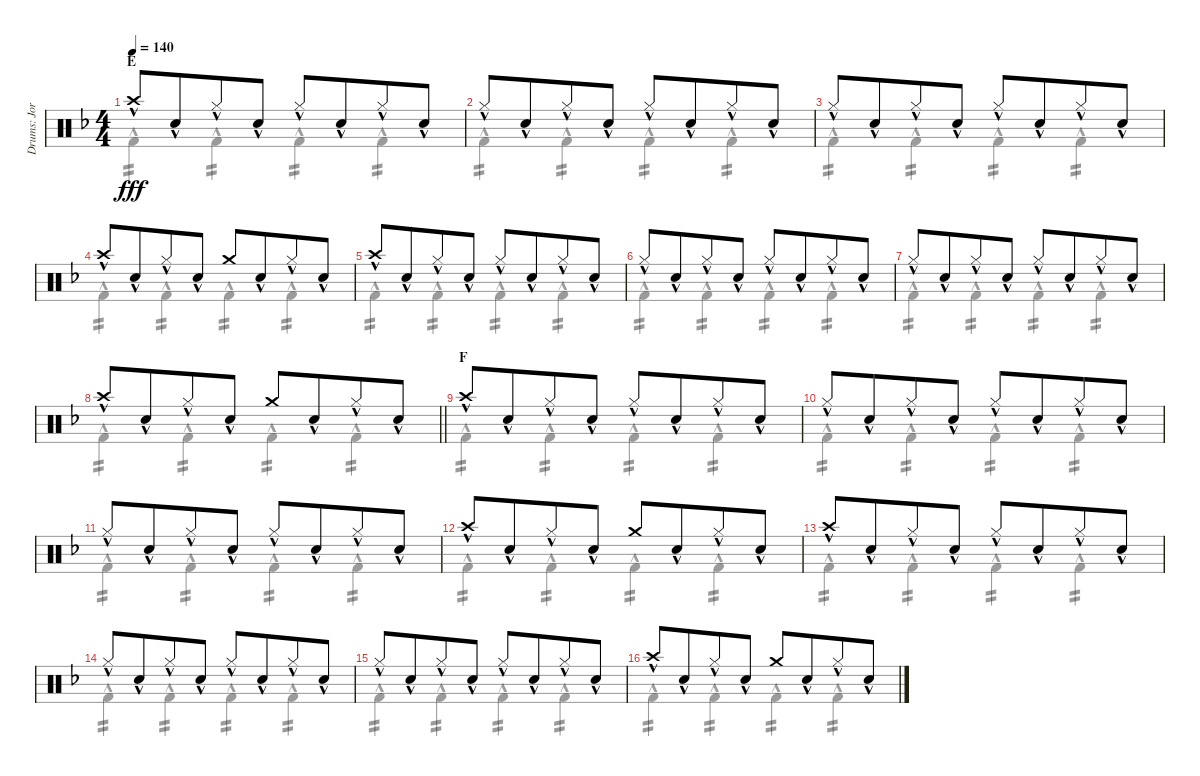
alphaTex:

\track ("Drums: Jorg" "Drums: Jor") {instrument percussion}
\staff {score}
\articulation defaults
\voice
\ts (4 4)
\section ("" "E")
\tempo 140
\clef neutral
\ks f "Crash high (hit)"{hac}.8{dy fff} "Snare (hit) 2"{hac}.8{beam merge} "Hi-Hat (closed)"{hac}.8 "Snare (hit) 2"{hac}.8 "Hi-Hat (closed)"{hac}.8 "Snare (hit) 2"{hac}.8{beam merge} "Hi-Hat (closed)"{hac}.8 "Snare (hit) 2"{hac}.8
|
"Hi-Hat (closed)"{hac}.8 "Snare (hit) 2"{hac}.8{beam merge} "Hi-Hat (closed)"{hac}.8 "Snare (hit) 2"{hac}.8 "Hi-Hat (closed)"{hac}.8 "Snare (hit) 2"{hac}.8{beam merge} "Hi-Hat (closed)"{hac}.8 "Snare (hit) 2"{hac}.8 |
"Hi-Hat (closed)"{hac}.8 "Snare (hit) 2"{hac}.8{beam merge} "Hi-Hat (closed)"{hac}.8 "Snare (hit) 2"{hac}.8 "Hi-Hat (closed)"{hac}.8 "Snare (hit) 2"{hac}.8{beam merge} "Hi-Hat (closed)"{hac}.8 "Snare (hit) 2"{hac}.8 |
"Crash high (hit)"{hac}.8 "Snare (hit) 2"{hac}.8{beam merge} "Hi-Hat (closed)"{hac}.8 "Snare (hit) 2"{hac}.8 "Crash medium (hit)".8 "Snare (hit) 2"{hac}.8{beam merge} "Hi-Hat (closed)"{hac}.8 "Snare (hit) 2"{hac}.8 |
"Crash high (hit)"{hac}.8 "Snare (hit) 2"{hac}.8{beam merge} "Hi-Hat (closed)"{hac}.8 "Snare (hit) 2"{hac}.8 "Hi-Hat (closed)"{hac}.8 "Snare (hit) 2"{hac}.8{beam merge} "Hi-Hat (closed)"{hac}.8 "Snare (hit) 2"{hac}.8 |
"Hi-Hat (closed)"{hac}.8 "Snare (hit) 2"{hac}.8{beam merge} "Hi-Hat (closed)"{hac}.8 "Snare (hit) 2"{hac}.8 "Hi-Hat (closed)"{hac}.8 "Snare (hit) 2"{hac}.8{beam merge} "Hi-Hat (closed)"{hac}.8 "Snare (hit) 2"{hac}.8 |
"Hi-Hat (closed)"{hac}.8 "Snare (hit) 2"{hac}.8{beam merge} "Hi-Hat (closed)"{hac}.8 "Snare (hit) 2"{hac}.8 "Hi-Hat (closed)"{hac}.8 "Snare (hit) 2"{hac}.8{beam merge} "Hi-Hat (closed)"{hac}.8 "Snare (hit) 2"{hac}.8 |
\barLineRight lightlight "Crash high (hit)"{hac}.8 "Snare (hit) 2"{hac}.8{beam merge} "Hi-Hat (closed)"{hac}.8 "Snare (hit) 2"{hac}.8 "Crash medium (hit)".8 "Snare (hit) 2"{hac}.8{beam merge} "Hi-Hat (closed)"{hac}.8 "Snare (hit) 2"{hac}.8
|
\section ("" "F")
"Crash high (hit)"{hac}.8 "Snare (hit) 2"{hac}.8{beam merge} "Hi-Hat (closed)"{hac}.8 "Snare (hit) 2"{hac}.8 "Hi-Hat (closed)"{hac}.8 "Snare (hit) 2"{hac}.8{beam merge} "Hi-Hat (closed)"{hac}.8 "Snare (hit) 2"{hac}.8 |
"Hi-Hat (closed)"{hac}.8 "Snare (hit) 2"{hac}.8{beam merge} "Hi-Hat (closed)"{hac}.8 "Snare (hit) 2"{hac}.8 "Hi-Hat (closed)"{hac}.8 "Snare (hit) 2"{hac}.8{beam merge} "Hi-Hat (closed)"{hac}.8 "Snare (hit) 2"{hac}.8 |
"Hi-Hat (closed)"{hac}.8 "Snare (hit) 2"{hac}.8{beam merge} "Hi-Hat (closed)"{hac}.8 "Snare (hit) 2"{hac}.8 "Hi-Hat (closed)"{hac}.8 "Snare (hit) 2"{hac}.8{beam merge} "Hi-Hat (closed)"{hac}.8 "Snare (hit) 2"{hac}.8 |
"Crash high (hit)"{hac}.8 "Snare (hit) 2"{hac}.8{beam merge} "Hi-Hat (closed)"{hac}.8 "Snare (hit) 2"{hac}.8 "Crash medium (hit)".8 "Snare (hit) 2"{hac}.8{beam merge} "Hi-Hat (closed)"{hac}.8 "Snare (hit) 2"{hac}.8 |
"Crash high (hit)"{hac}.8 "Snare (hit) 2"{hac}.8{beam merge} "Hi-Hat (closed)"{hac}.8 "Snare (hit) 2"{hac}.8 "Hi-Hat (closed)"{hac}.8 "Snare (hit) 2"{hac}.8{beam merge} "Hi-Hat (closed)"{hac}.8 "Snare (hit) 2"{hac}.8 |
"Hi-Hat (closed)"{hac}.8 "Snare (hit) 2"{hac}.8{beam merge} "Hi-Hat (closed)"{hac}.8 "Snare (hit) 2"{hac}.8 "Hi-Hat (closed)"{hac}.8 "Snare (hit) 2"{hac}.8{beam merge} "Hi-Hat (closed)"{hac}.8 "Snare (hit) 2"{hac}.8 |
"Hi-Hat (closed)"{hac}.8 "Snare (hit) 2"{hac}.8{beam merge} "Hi-Hat (closed)"{hac}.8 "Snare (hit) 2"{hac}.8 "Hi-Hat (closed)"{hac}.8 "Snare (hit) 2"{hac}.8{beam merge} "Hi-Hat (closed)"{hac}.8 "Snare (hit) 2"{hac}.8 |
"Crash high (hit)"{hac}.8 "Snare (hit) 2"{hac}.8{beam merge} "Hi-Hat (closed)"{hac}.8 "Snare (hit) 2"{hac}.8 "Crash medium (hit)".8 "Snare (hit) 2"{hac}.8{beam merge} "Hi-Hat (closed)"{hac}.8 "Snare (hit) 2"{hac}.8
\voice
\clef neutral
\ottava regular
\simile none
\ks f "Kick (hit) 2"{hac}.4{tp 2 dy fff beam merge} "Kick (hit) 2"{hac}.4{tp 2} "Kick (hit) 2"{hac}.4{tp 2} "Kick (hit) 2"{hac}.4{tp 2}
|
"Kick (hit) 2"{hac}.4{tp 2 beam merge} "Kick (hit) 2"{hac}.4{tp 2} "Kick (hit) 2"{hac}.4{tp 2} "Kick (hit) 2"{hac}.4{tp 2} |
"Kick (hit) 2"{hac}.4{tp 2 beam merge} "Kick (hit) 2"{hac}.4{tp 2} "Kick (hit) 2"{hac}.4{tp 2} "Kick (hit) 2"{hac}.4{tp 2} |
"Kick (hit) 2"{hac}.4{tp 2 beam merge} "Kick (hit) 2"{hac}.4{tp 2} "Kick (hit) 2"{hac}.4{tp 2} "Kick (hit) 2"{hac}.4{tp 2} |
"Kick (hit) 2"{hac}.4{tp 2 beam merge} "Kick (hit) 2"{hac}.4{tp 2} "Kick (hit) 2"{hac}.4{tp 2} "Kick (hit) 2"{hac}.4{tp 2} |
"Kick (hit) 2"{hac}.4{tp 2 beam merge} "Kick (hit) 2"{hac}.4{tp 2} "Kick (hit) 2"{hac}.4{tp 2} "Kick (hit) 2"{hac}.4{tp 2} |
"Kick (hit) 2"{hac}.4{tp 2 beam merge} "Kick (hit) 2"{hac}.4{tp 2} "Kick (hit) 2"{hac}.4{tp 2} "Kick (hit) 2"{hac}.4{tp 2} |
\barLineRight lightlight "Kick (hit) 2"{hac}.4{tp 2 beam merge} "Kick (hit) 2"{hac}.4{tp 2} "Kick (hit) 2"{hac}.4{tp 2} "Kick (hit) 2"{hac}.4{tp 2}
|
"Kick (hit) 2"{hac}.4{tp 2 beam merge} "Kick (hit) 2"{hac}.4{tp 2} "Kick (hit) 2"{hac}.4{tp 2} "Kick (hit) 2"{hac}.4{tp 2} |
"Kick (hit) 2"{hac}.4{tp 2 beam merge} "Kick (hit) 2"{hac}.4{tp 2} "Kick (hit) 2"{hac}.4{tp 2} "Kick (hit) 2"{hac}.4{tp 2} |
"Kick (hit) 2"{hac}.4{tp 2 beam merge} "Kick (hit) 2"{hac}.4{tp 2} "Kick (hit) 2"{hac}.4{tp 2} "Kick (hit) 2"{hac}.4{tp 2} |
"Kick (hit) 2"{hac}.4{tp 2 beam merge} "Kick (hit) 2"{hac}.4{tp 2} "Kick (hit) 2"{hac}.4{tp 2} "Kick (hit) 2"{hac}.4{tp 2} |
"Kick (hit) 2"{hac}.4{tp 2 beam merge} "Kick (hit) 2"{hac}.4{tp 2} "Kick (hit) 2"{hac}.4{tp 2} "Kick (hit) 2"{hac}.4{tp 2} |
"Kick (hit) 2"{hac}.4{tp 2 beam merge} "Kick (hit) 2"{hac}.4{tp 2} "Kick (hit) 2"{hac}.4{tp 2} "Kick (hit) 2"{hac}.4{tp 2} |
"Kick (hit) 2"{hac}.4{tp 2 beam merge} "Kick (hit) 2"{hac}.4{tp 2} "Kick (hit) 2"{hac}.4{tp 2} "Kick (hit) 2"{hac}.4{tp 2} |
"Kick (hit) 2"{hac}.4{tp 2 beam merge} "Kick (hit) 2"{hac}.4{tp 2} "Kick (hit) 2"{hac}.4{tp 2} "Kick (hit) 2"{hac}.4{tp 2}
